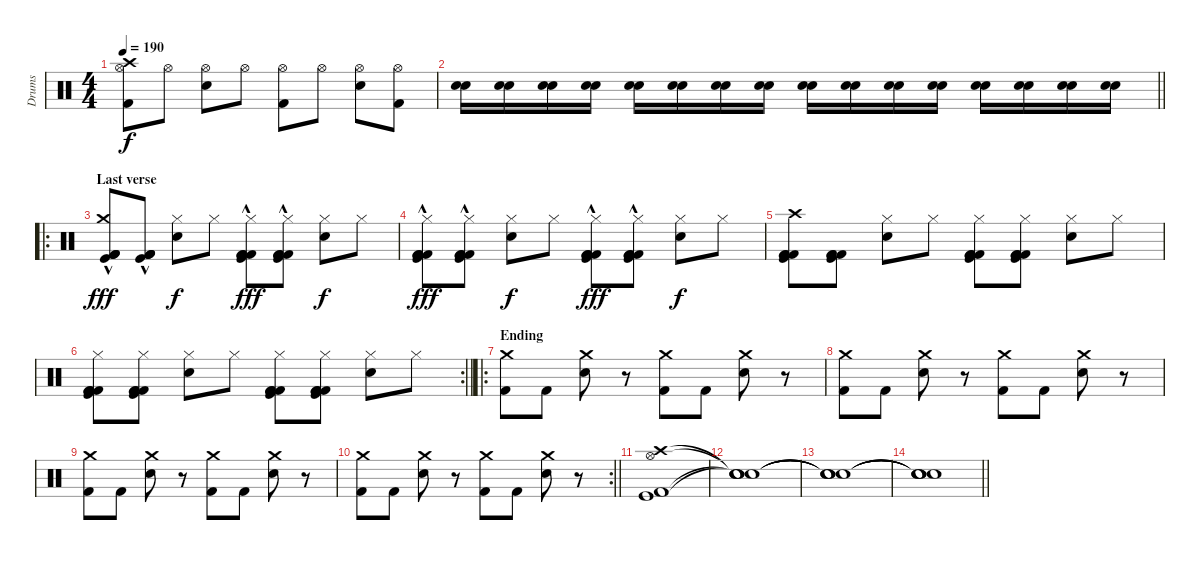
\track ("Drums" "Drums") {instrument percussion}
\staff {score}
\articulation defaults
\ts (4 4)
\tempo 190
\clef neutral
\ks c
("Crash high (hit)" "Hi-Hat (open)" "Kick (hit) 2").8{dy f} "Hi-Hat (open)".8 ("Hi-Hat (open)" "Electric Snare (hit)").8 "Hi-Hat (open)".8 ("Hi-Hat (open)" "Kick (hit) 2").8 "Hi-Hat (open)".8 ("Hi-Hat (open)" "Electric Snare (hit)").8 ("Hi-Hat (open)" "Kick (hit) 2").8 |
\barLineRight lightlight
("Snare (hit) 2" "Electric Snare (hit)").16 ("Snare (hit) 2" "Electric Snare (hit)").16 ("Snare (hit) 2" "Electric Snare (hit)").16 ("Snare (hit) 2" "Electric Snare (hit)").16 ("Snare (hit) 2" "Electric Snare (hit)").16 ("Snare (hit) 2" "Electric Snare (hit)").16 ("Snare (hit) 2" "Electric Snare (hit)").16 ("Snare (hit) 2" "Electric Snare (hit)").16 ("Snare (hit) 2" "Electric Snare (hit)").16 ("Snare (hit) 2" "Electric Snare (hit)").16 ("Snare (hit) 2" "Electric Snare (hit)").16 ("Snare (hit) 2" "Electric Snare (hit)").16 ("Snare (hit) 2" "Electric Snare (hit)").16 ("Snare (hit) 2" "Electric Snare (hit)").16 ("Snare (hit) 2" "Electric Snare (hit)").16 ("Snare (hit) 2" "Electric Snare (hit)").16 |
\ro
\section ("" "Last verse")
("Kick (hit) 2" "Kick (hit) 2" "Crash medium (hit)" "Kick (hit) 2"{hac} "Kick (hit)"{hac}).8{dy fff} ("Kick (hit) 2" "Kick (hit) 2" "Kick (hit) 2"{hac} "Kick (hit)"{hac}).8 ("Hi-Hat (closed)" "Electric Snare (hit)").8{dy f} "Hi-Hat (closed)".8 ("Kick (hit) 2" "Kick (hit) 2" "Hi-Hat (closed)" "Kick (hit)"{hac} "Kick (hit) 2"{hac}).8{dy fff} ("Kick (hit) 2" "Kick (hit) 2" "Hi-Hat (closed)" "Kick (hit)"{hac} "Kick (hit) 2"{hac}).8 ("Hi-Hat (closed)" "Electric Snare (hit)").8{dy f} "Hi-Hat (closed)".8 |
("Kick (hit) 2" "Kick (hit) 2" "Hi-Hat (closed)" "Kick (hit)"{hac} "Kick (hit) 2"{hac}).8{dy fff} ("Kick (hit) 2" "Kick (hit) 2" "Hi-Hat (closed)" "Kick (hit)"{hac} "Kick (hit) 2"{hac}).8 ("Hi-Hat (closed)" "Electric Snare (hit)").8{dy f} "Hi-Hat (closed)".8 ("Kick (hit) 2" "Kick (hit) 2" "Hi-Hat (closed)" "Kick (hit)"{hac} "Kick (hit) 2"{hac}).8{dy fff} ("Kick (hit) 2" "Kick (hit) 2" "Hi-Hat (closed)" "Kick (hit)"{hac} "Kick (hit) 2"{hac}).8 ("Hi-Hat (closed)" "Electric Snare (hit)").8{dy f} "Hi-Hat (closed)".8 |
("Kick (hit) 2" "Kick (hit) 2" "Crash high (hit)" "Kick (hit) 2" "Kick (hit)").8 ("Kick (hit) 2" "Kick (hit) 2" "Kick (hit) 2" "Kick (hit)").8 ("Hi-Hat (closed)" "Electric Snare (hit)").8 "Hi-Hat (closed)".8 ("Kick (hit) 2" "Kick (hit) 2" "Hi-Hat (closed)" "Kick (hit) 2" "Kick (hit)").8 ("Kick (hit) 2" "Kick (hit) 2" "Hi-Hat (closed)" "Kick (hit) 2" "Kick (hit)").8 ("Hi-Hat (closed)" "Electric Snare (hit)").8 "Hi-Hat (closed)".8 |
\rc 2
\barLineRight lightlight
("Kick (hit) 2" "Kick (hit) 2" "Hi-Hat (closed)" "Kick (hit) 2" "Kick (hit)").8 ("Kick (hit) 2" "Kick (hit) 2" "Hi-Hat (closed)" "Kick (hit) 2" "Kick (hit)").8 ("Hi-Hat (closed)" "Electric Snare (hit)").8 "Hi-Hat (closed)".8 ("Kick (hit) 2" "Kick (hit) 2" "Hi-Hat (closed)" "Kick (hit) 2" "Kick (hit)").8 ("Kick (hit) 2" "Kick (hit) 2" "Hi-Hat (closed)" "Kick (hit) 2" "Kick (hit)").8 ("Hi-Hat (closed)" "Electric Snare (hit)").8 "Hi-Hat (closed)".8 |
\ro
\section ("" "Ending")
("Crash medium (hit)" "Kick (hit) 2").8 "Kick (hit) 2".8 ("Crash medium (hit)" "Electric Snare (hit)").8 r.8 ("Crash medium (hit)" "Kick (hit) 2").8 "Kick (hit) 2".8 ("Crash medium (hit)" "Electric Snare (hit)").8 r.8 |
("Crash medium (hit)" "Kick (hit) 2").8 "Kick (hit) 2".8 ("Crash medium (hit)" "Electric Snare (hit)").8 r.8 ("Crash medium (hit)" "Kick (hit) 2").8 "Kick (hit) 2".8 ("Crash medium (hit)" "Electric Snare (hit)").8 r.8 |
("Crash medium (hit)" "Kick (hit) 2").8 "Kick (hit) 2".8 ("Crash medium (hit)" "Electric Snare (hit)").8 r.8 ("Crash medium (hit)" "Kick (hit) 2").8 "Kick (hit) 2".8 ("Crash medium (hit)" "Electric Snare (hit)").8 r.8 |
\rc 2
\barLineRight lightlight
("Crash medium (hit)" "Kick (hit) 2").8 "Kick (hit) 2".8 ("Crash medium (hit)" "Electric Snare (hit)").8 r.8 ("Crash medium (hit)" "Kick (hit) 2").8 "Kick (hit) 2".8 ("Crash medium (hit)" "Electric Snare (hit)").8 r.8 |
("Crash high (hit)" "Hi-Hat (open)" "Kick (hit) 2" "Kick (hit)").1 |
("Snare (hit)"{t} "Snare (hit)"{t} "Snare (hit)"{t} "Snare (hit)"{t}).1 |
("Snare (hit)"{t} "Snare (hit)"{t} "Snare (hit)"{t} "Snare (hit)"{t}).1 |
\barLineRight lightlight
("Snare (hit)"{t} "Snare (hit)"{t} "Snare (hit)"{t} "Snare (hit)"{t}).1
